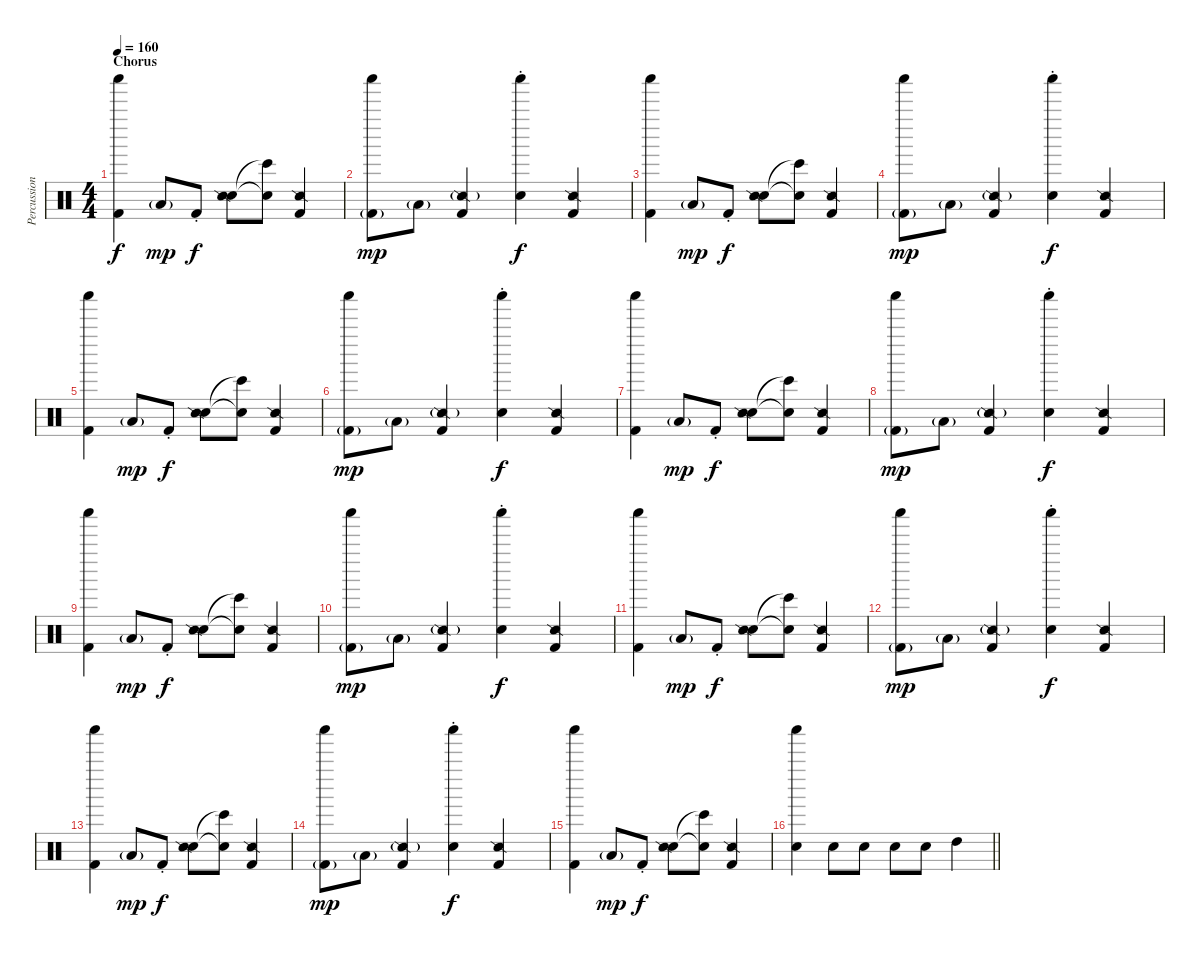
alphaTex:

\track ("Percussion" "Percussion") {instrument percussion}
\staff {score}
\articulation defaults
\ts (4 4)
\section ("" "Chorus")
\tempo 160
\clef neutral
\ks c
("Kick (hit) 2" "Shaker (hit)").4{dy f} "Low Tom (hit)"{g}.8{dy mp} "Kick (hit) 2"{st}.8{dy f} ("Electric Snare (hit)" "Snare (side stick) 2").8 ("Electric Snare (hit)"{t} "Bongo High (hit)"{t}).8 ("Kick (hit) 2" "Snare (side stick) 2").4 |
("Kick (hit) 2"{g} "Shaker (hit)").8{dy mp} "Low Tom (hit)"{g}.8 ("Kick (hit) 2" "Snare (side stick) 2"{g}).4 ("Electric Snare (hit)" "Shaker (hit)"{st}).4{dy f} ("Kick (hit) 2" "Snare (side stick) 2").4 |
("Kick (hit) 2" "Shaker (hit)").4 "Low Tom (hit)"{g}.8{dy mp} "Kick (hit) 2"{st}.8{dy f} ("Electric Snare (hit)" "Snare (side stick) 2").8 ("Electric Snare (hit)"{t} "Bongo High (hit)"{t}).8 ("Kick (hit) 2" "Snare (side stick) 2").4 |
("Kick (hit) 2"{g} "Shaker (hit)").8{dy mp} "Low Tom (hit)"{g}.8 ("Kick (hit) 2" "Snare (side stick) 2"{g}).4 ("Electric Snare (hit)" "Shaker (hit)"{st}).4{dy f} ("Kick (hit) 2" "Snare (side stick) 2").4 |
("Kick (hit) 2" "Shaker (hit)").4 "Low Tom (hit)"{g}.8{dy mp} "Kick (hit) 2"{st}.8{dy f} ("Electric Snare (hit)" "Snare (side stick) 2").8 ("Electric Snare (hit)"{t} "Bongo High (hit)"{t}).8 ("Kick (hit) 2" "Snare (side stick) 2").4 |
("Kick (hit) 2"{g} "Shaker (hit)").8{dy mp} "Low Tom (hit)"{g}.8 ("Kick (hit) 2" "Snare (side stick) 2"{g}).4 ("Electric Snare (hit)" "Shaker (hit)"{st}).4{dy f} ("Kick (hit) 2" "Snare (side stick) 2").4 |
("Kick (hit) 2" "Shaker (hit)").4 "Low Tom (hit)"{g}.8{dy mp} "Kick (hit) 2"{st}.8{dy f} ("Electric Snare (hit)" "Snare (side stick) 2").8 ("Electric Snare (hit)"{t} "Bongo High (hit)"{t}).8 ("Kick (hit) 2" "Snare (side stick) 2").4 |
("Kick (hit) 2"{g} "Shaker (hit)").8{dy mp} "Low Tom (hit)"{g}.8 ("Kick (hit) 2" "Snare (side stick) 2"{g}).4 ("Electric Snare (hit)" "Shaker (hit)"{st}).4{dy f} ("Kick (hit) 2" "Snare (side stick) 2").4 |
("Kick (hit) 2" "Shaker (hit)").4 "Low Tom (hit)"{g}.8{dy mp} "Kick (hit) 2"{st}.8{dy f} ("Electric Snare (hit)" "Snare (side stick) 2").8 ("Electric Snare (hit)"{t} "Bongo High (hit)"{t}).8 ("Kick (hit) 2" "Snare (side stick) 2").4 |
("Kick (hit) 2"{g} "Shaker (hit)").8{dy mp} "Low Tom (hit)"{g}.8 ("Kick (hit) 2" "Snare (side stick) 2"{g}).4 ("Electric Snare (hit)" "Shaker (hit)"{st}).4{dy f} ("Kick (hit) 2" "Snare (side stick) 2").4 |
("Kick (hit) 2" "Shaker (hit)").4 "Low Tom (hit)"{g}.8{dy mp} "Kick (hit) 2"{st}.8{dy f} ("Electric Snare (hit)" "Snare (side stick) 2").8 ("Electric Snare (hit)"{t} "Bongo High (hit)"{t}).8 ("Kick (hit) 2" "Snare (side stick) 2").4 |
("Kick (hit) 2"{g} "Shaker (hit)").8{dy mp} "Low Tom (hit)"{g}.8 ("Kick (hit) 2" "Snare (side stick) 2"{g}).4 ("Electric Snare (hit)" "Shaker (hit)"{st}).4{dy f} ("Kick (hit) 2" "Snare (side stick) 2").4 |
("Kick (hit) 2" "Shaker (hit)").4 "Low Tom (hit)"{g}.8{dy mp} "Kick (hit) 2"{st}.8{dy f} ("Electric Snare (hit)" "Snare (side stick) 2").8 ("Electric Snare (hit)"{t} "Bongo High (hit)"{t}).8 ("Kick (hit) 2" "Snare (side stick) 2").4 |
("Kick (hit) 2"{g} "Shaker (hit)").8{dy mp} "Low Tom (hit)"{g}.8 ("Kick (hit) 2" "Snare (side stick) 2"{g}).4 ("Electric Snare (hit)" "Shaker (hit)"{st}).4{dy f} ("Kick (hit) 2" "Snare (side stick) 2").4 |
("Kick (hit) 2" "Shaker (hit)").4 "Low Tom (hit)"{g}.8{dy mp} "Kick (hit) 2"{st}.8{dy f} ("Electric Snare (hit)" "Snare (side stick) 2").8 ("Electric Snare (hit)"{t} "Bongo High (hit)"{t}).8 ("Kick (hit) 2" "Snare (side stick) 2").4 |
\barLineRight lightlight
("Electric Snare (hit)" "Shaker (hit)").4 "Electric Snare (hit)".8 "Electric Snare (hit)".8 "Electric Snare (hit)".8 "Electric Snare (hit)".8 "High Tom (hit)".4
